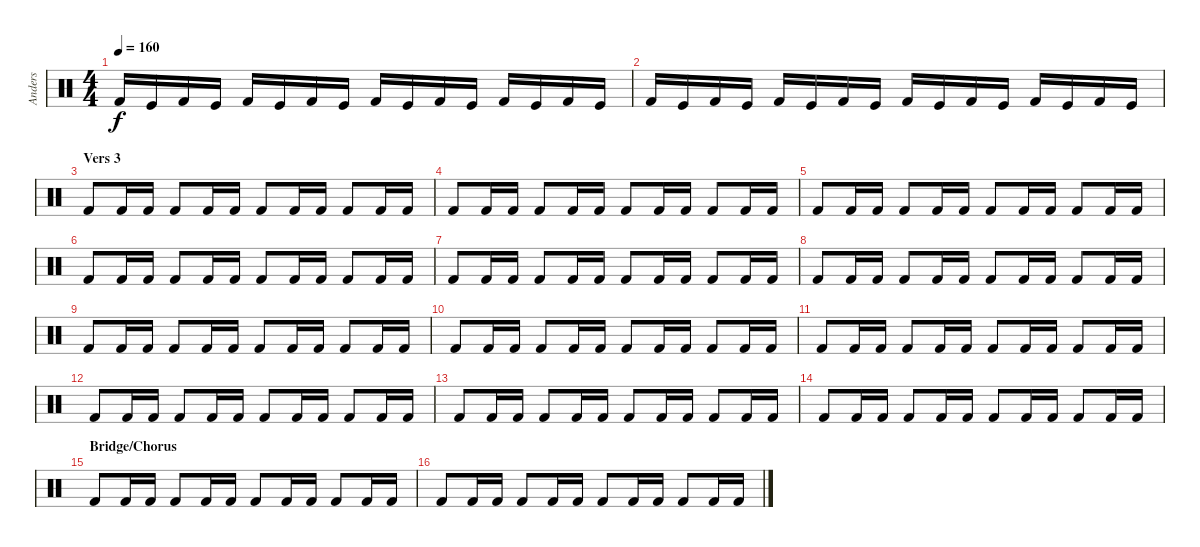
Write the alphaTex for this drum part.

\track ("Anders" "Anders") {instrument percussion}
\staff {score}
\articulation defaults
\ts (4 4)
\tempo 160
\clef neutral
\ks c "Kick (hit) 2".16{dy f} "Kick (hit)".16 "Kick (hit) 2".16 "Kick (hit)".16 "Kick (hit) 2".16 "Kick (hit)".16 "Kick (hit) 2".16 "Kick (hit)".16 "Kick (hit) 2".16 "Kick (hit)".16 "Kick (hit) 2".16 "Kick (hit)".16 "Kick (hit) 2".16 "Kick (hit)".16 "Kick (hit) 2".16 "Kick (hit)".16
|
"Kick (hit) 2".16 "Kick (hit)".16 "Kick (hit) 2".16 "Kick (hit)".16 "Kick (hit) 2".16 "Kick (hit)".16 "Kick (hit) 2".16 "Kick (hit)".16 "Kick (hit) 2".16 "Kick (hit)".16 "Kick (hit) 2".16 "Kick (hit)".16 "Kick (hit) 2".16 "Kick (hit)".16 "Kick (hit) 2".16 "Kick (hit)".16 |
\section ("" "Vers 3")
"Kick (hit) 2".8 "Kick (hit) 2".16 "Kick (hit) 2".16 "Kick (hit) 2".8 "Kick (hit) 2".16 "Kick (hit) 2".16 "Kick (hit) 2".8 "Kick (hit) 2".16 "Kick (hit) 2".16 "Kick (hit) 2".8 "Kick (hit) 2".16 "Kick (hit) 2".16 |
"Kick (hit) 2".8 "Kick (hit) 2".16 "Kick (hit) 2".16 "Kick (hit) 2".8 "Kick (hit) 2".16 "Kick (hit) 2".16 "Kick (hit) 2".8 "Kick (hit) 2".16 "Kick (hit) 2".16 "Kick (hit) 2".8 "Kick (hit) 2".16 "Kick (hit) 2".16 |
"Kick (hit) 2".8 "Kick (hit) 2".16 "Kick (hit) 2".16 "Kick (hit) 2".8 "Kick (hit) 2".16 "Kick (hit) 2".16 "Kick (hit) 2".8 "Kick (hit) 2".16 "Kick (hit) 2".16 "Kick (hit) 2".8 "Kick (hit) 2".16 "Kick (hit) 2".16 |
"Kick (hit) 2".8 "Kick (hit) 2".16 "Kick (hit) 2".16 "Kick (hit) 2".8 "Kick (hit) 2".16 "Kick (hit) 2".16 "Kick (hit) 2".8 "Kick (hit) 2".16 "Kick (hit) 2".16 "Kick (hit) 2".8 "Kick (hit) 2".16 "Kick (hit) 2".16 |
"Kick (hit) 2".8 "Kick (hit) 2".16 "Kick (hit) 2".16 "Kick (hit) 2".8 "Kick (hit) 2".16 "Kick (hit) 2".16 "Kick (hit) 2".8 "Kick (hit) 2".16 "Kick (hit) 2".16 "Kick (hit) 2".8 "Kick (hit) 2".16 "Kick (hit) 2".16 |
"Kick (hit) 2".8 "Kick (hit) 2".16 "Kick (hit) 2".16 "Kick (hit) 2".8 "Kick (hit) 2".16 "Kick (hit) 2".16 "Kick (hit) 2".8 "Kick (hit) 2".16 "Kick (hit) 2".16 "Kick (hit) 2".8 "Kick (hit) 2".16 "Kick (hit) 2".16 |
"Kick (hit) 2".8 "Kick (hit) 2".16 "Kick (hit) 2".16 "Kick (hit) 2".8 "Kick (hit) 2".16 "Kick (hit) 2".16 "Kick (hit) 2".8 "Kick (hit) 2".16 "Kick (hit) 2".16 "Kick (hit) 2".8 "Kick (hit) 2".16 "Kick (hit) 2".16 |
"Kick (hit) 2".8 "Kick (hit) 2".16 "Kick (hit) 2".16 "Kick (hit) 2".8 "Kick (hit) 2".16 "Kick (hit) 2".16 "Kick (hit) 2".8 "Kick (hit) 2".16 "Kick (hit) 2".16 "Kick (hit) 2".8 "Kick (hit) 2".16 "Kick (hit) 2".16 |
"Kick (hit) 2".8 "Kick (hit) 2".16 "Kick (hit) 2".16 "Kick (hit) 2".8 "Kick (hit) 2".16 "Kick (hit) 2".16 "Kick (hit) 2".8 "Kick (hit) 2".16 "Kick (hit) 2".16 "Kick (hit) 2".8 "Kick (hit) 2".16 "Kick (hit) 2".16 |
"Kick (hit) 2".8 "Kick (hit) 2".16 "Kick (hit) 2".16 "Kick (hit) 2".8 "Kick (hit) 2".16 "Kick (hit) 2".16 "Kick (hit) 2".8 "Kick (hit) 2".16 "Kick (hit) 2".16 "Kick (hit) 2".8 "Kick (hit) 2".16 "Kick (hit) 2".16 |
"Kick (hit) 2".8 "Kick (hit) 2".16 "Kick (hit) 2".16 "Kick (hit) 2".8 "Kick (hit) 2".16 "Kick (hit) 2".16 "Kick (hit) 2".8 "Kick (hit) 2".16 "Kick (hit) 2".16 "Kick (hit) 2".8 "Kick (hit) 2".16 "Kick (hit) 2".16 |
"Kick (hit) 2".8 "Kick (hit) 2".16 "Kick (hit) 2".16 "Kick (hit) 2".8 "Kick (hit) 2".16 "Kick (hit) 2".16 "Kick (hit) 2".8 "Kick (hit) 2".16 "Kick (hit) 2".16 "Kick (hit) 2".8 "Kick (hit) 2".16 "Kick (hit) 2".16 |
\section ("" "Bridge/Chorus")
"Kick (hit) 2".8 "Kick (hit) 2".16 "Kick (hit) 2".16 "Kick (hit) 2".8 "Kick (hit) 2".16 "Kick (hit) 2".16 "Kick (hit) 2".8 "Kick (hit) 2".16 "Kick (hit) 2".16 "Kick (hit) 2".8 "Kick (hit) 2".16 "Kick (hit) 2".16 |
"Kick (hit) 2".8 "Kick (hit) 2".16 "Kick (hit) 2".16 "Kick (hit) 2".8 "Kick (hit) 2".16 "Kick (hit) 2".16 "Kick (hit) 2".8 "Kick (hit) 2".16 "Kick (hit) 2".16 "Kick (hit) 2".8 "Kick (hit) 2".16 "Kick (hit) 2".16
